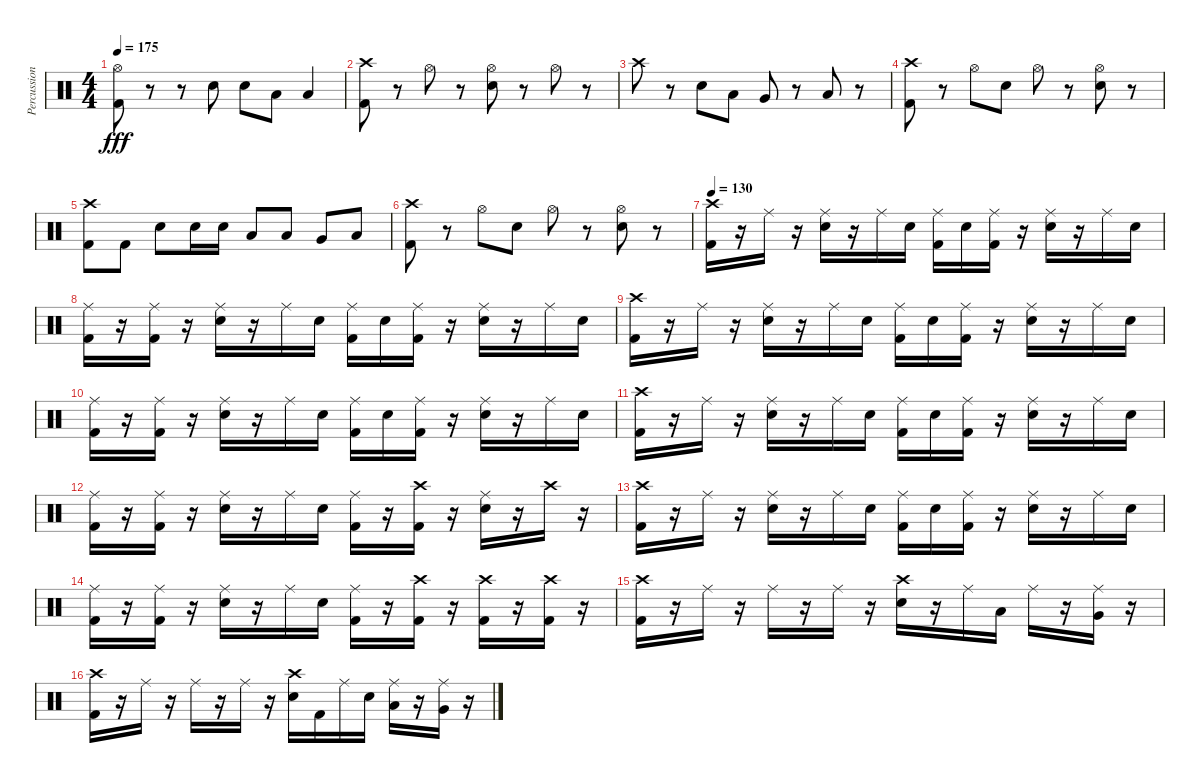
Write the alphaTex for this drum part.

\track ("Percussion" "Percussion") {instrument percussion}
\staff {score}
\articulation defaults
\ts (4 4)
\tempo 175
\clef neutral
\ks c
("Hi-Hat (open)" "Kick (hit) 2").8{dy fff} r.8 r.8 "Electric Snare (hit)".8 "Electric Snare (hit)".8 "Low Tom (hit)".8 "Low Tom (hit)".4 |
("Crash high (hit)" "Kick (hit) 2").8 r.8 "Hi-Hat (open)".8 r.8 ("Hi-Hat (open)" "Electric Snare (hit)").8 r.8 "Hi-Hat (open)".8 r.8 |
"Crash high (hit)".8 r.8 "Electric Snare (hit)".8 "Low Tom (hit)".8 "Very Low Tom (hit)".8 r.8 "Low Floor Tom (hit)".8 r.8 |
("Crash high (hit)" "Kick (hit) 2").8 r.8 "Hi-Hat (open)".8 "Electric Snare (hit)".8 "Hi-Hat (open)".8 r.8 ("Hi-Hat (open)" "Electric Snare (hit)").8 r.8 |
("Crash high (hit)" "Kick (hit) 2").8 "Kick (hit) 2".8 "Electric Snare (hit)".8 "Electric Snare (hit)".16 "Electric Snare (hit)".16 "Low Tom (hit)".8 "Low Tom (hit)".8 "Very Low Tom (hit)".8 "Low Floor Tom (hit)".8 |
("Crash high (hit)" "Kick (hit) 2").8 r.8 "Hi-Hat (open)".8 "Electric Snare (hit)".8 "Hi-Hat (open)".8 r.8 ("Hi-Hat (open)" "Electric Snare (hit)").8 r.8 |
\tempo 130
("Crash high (hit)" "Kick (hit) 2").16 r.16 "Ride (middle)".16 r.16 ("Ride (middle)" "Electric Snare (hit)").16 r.16 "Ride (middle)".16 "Electric Snare (hit)".16 ("Ride (middle)" "Kick (hit) 2").16 "Electric Snare (hit)".16 ("Ride (middle)" "Kick (hit) 2").16 r.16 ("Ride (middle)" "Electric Snare (hit)").16 r.16 "Ride (middle)".16 "Electric Snare (hit)".16 |
("Ride (middle)" "Kick (hit) 2").16 r.16 ("Ride (middle)" "Kick (hit) 2").16 r.16 ("Ride (middle)" "Electric Snare (hit)").16 r.16 "Ride (middle)".16 "Electric Snare (hit)".16 ("Ride (middle)" "Kick (hit) 2").16 "Electric Snare (hit)".16 ("Ride (middle)" "Kick (hit) 2").16 r.16 ("Ride (middle)" "Electric Snare (hit)").16 r.16 "Ride (middle)".16 "Electric Snare (hit)".16 |
("Crash high (hit)" "Kick (hit) 2").16 r.16 "Ride (middle)".16 r.16 ("Ride (middle)" "Electric Snare (hit)").16 r.16 "Ride (middle)".16 "Electric Snare (hit)".16 ("Ride (middle)" "Kick (hit) 2").16 "Electric Snare (hit)".16 ("Ride (middle)" "Kick (hit) 2").16 r.16 ("Ride (middle)" "Electric Snare (hit)").16 r.16 "Ride (middle)".16 "Electric Snare (hit)".16 |
("Ride (middle)" "Kick (hit) 2").16 r.16 ("Ride (middle)" "Kick (hit) 2").16 r.16 ("Ride (middle)" "Electric Snare (hit)").16 r.16 "Ride (middle)".16 "Electric Snare (hit)".16 ("Ride (middle)" "Kick (hit) 2").16 "Electric Snare (hit)".16 ("Ride (middle)" "Kick (hit) 2").16 r.16 ("Ride (middle)" "Electric Snare (hit)").16 r.16 "Ride (middle)".16 "Electric Snare (hit)".16 |
("Crash high (hit)" "Kick (hit) 2").16 r.16 "Ride (middle)".16 r.16 ("Ride (middle)" "Electric Snare (hit)").16 r.16 "Ride (middle)".16 "Electric Snare (hit)".16 ("Ride (middle)" "Kick (hit) 2").16 "Electric Snare (hit)".16 ("Ride (middle)" "Kick (hit) 2").16 r.16 ("Ride (middle)" "Electric Snare (hit)").16 r.16 "Ride (middle)".16 "Electric Snare (hit)".16 |
("Ride (middle)" "Kick (hit) 2").16 r.16 ("Ride (middle)" "Kick (hit) 2").16 r.16 ("Ride (middle)" "Electric Snare (hit)").16 r.16 "Ride (middle)".16 "Electric Snare (hit)".16 ("Ride (middle)" "Kick (hit) 2").16 r.16 ("Crash high (hit)" "Kick (hit) 2").16 r.16 ("Ride (middle)" "Electric Snare (hit)").16 r.16 "Crash high (hit)".16 r.16 |
("Crash high (hit)" "Kick (hit) 2").16 r.16 "Ride (middle)".16 r.16 ("Ride (middle)" "Electric Snare (hit)").16 r.16 "Ride (middle)".16 "Electric Snare (hit)".16 ("Ride (middle)" "Kick (hit) 2").16 "Electric Snare (hit)".16 ("Ride (middle)" "Kick (hit) 2").16 r.16 ("Ride (middle)" "Electric Snare (hit)").16 r.16 "Ride (middle)".16 "Electric Snare (hit)".16 |
("Ride (middle)" "Kick (hit) 2").16 r.16 ("Ride (middle)" "Kick (hit) 2").16 r.16 ("Ride (middle)" "Electric Snare (hit)").16 r.16 "Ride (middle)".16 "Electric Snare (hit)".16 ("Ride (middle)" "Kick (hit) 2").16 r.16 ("Crash high (hit)" "Kick (hit) 2").16 r.16 ("Crash high (hit)" "Kick (hit) 2").16 r.16 ("Crash high (hit)" "Kick (hit) 2").16 r.16 |
("Crash high (hit)" "Kick (hit) 2").16 r.16 "Ride (middle)".16 r.16 "Ride (middle)".16 r.16 "Ride (middle)".16 r.16 ("Crash high (hit)" "Electric Snare (hit)").16 r.16 "Ride (middle)".16 "Low Tom (hit)".16 "Ride (middle)".16 r.16 ("Ride (middle)" "Very Low Tom (hit)").16 r.16 |
("Crash high (hit)" "Kick (hit) 2").16 r.16 "Ride (middle)".16 r.16 "Ride (middle)".16 r.16 "Ride (middle)".16 r.16 ("Crash high (hit)" "Electric Snare (hit)").16 "Kick (hit) 2".16 "Ride (middle)".16 "Electric Snare (hit)".16 ("Ride (middle)" "Low Tom (hit)").16 r.16 ("Ride (middle)" "Very Low Tom (hit)").16 r.16
